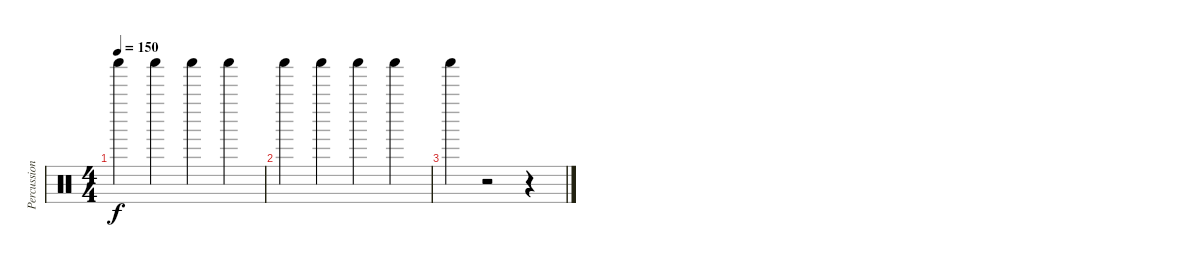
\track ("Percussion - Aki Hakala" "Percussion") {instrument percussion}
\staff {score}
\articulation defaults
\ts (4 4)
\tempo 150
\clef neutral
\ks c "Shaker (hit)".4{dy f} "Shaker (hit)".4 "Shaker (hit)".4 "Shaker (hit)".4
|
"Shaker (hit)".4 "Shaker (hit)".4 "Shaker (hit)".4 "Shaker (hit)".4 |
"Shaker (hit)".4 r.2 r.4
